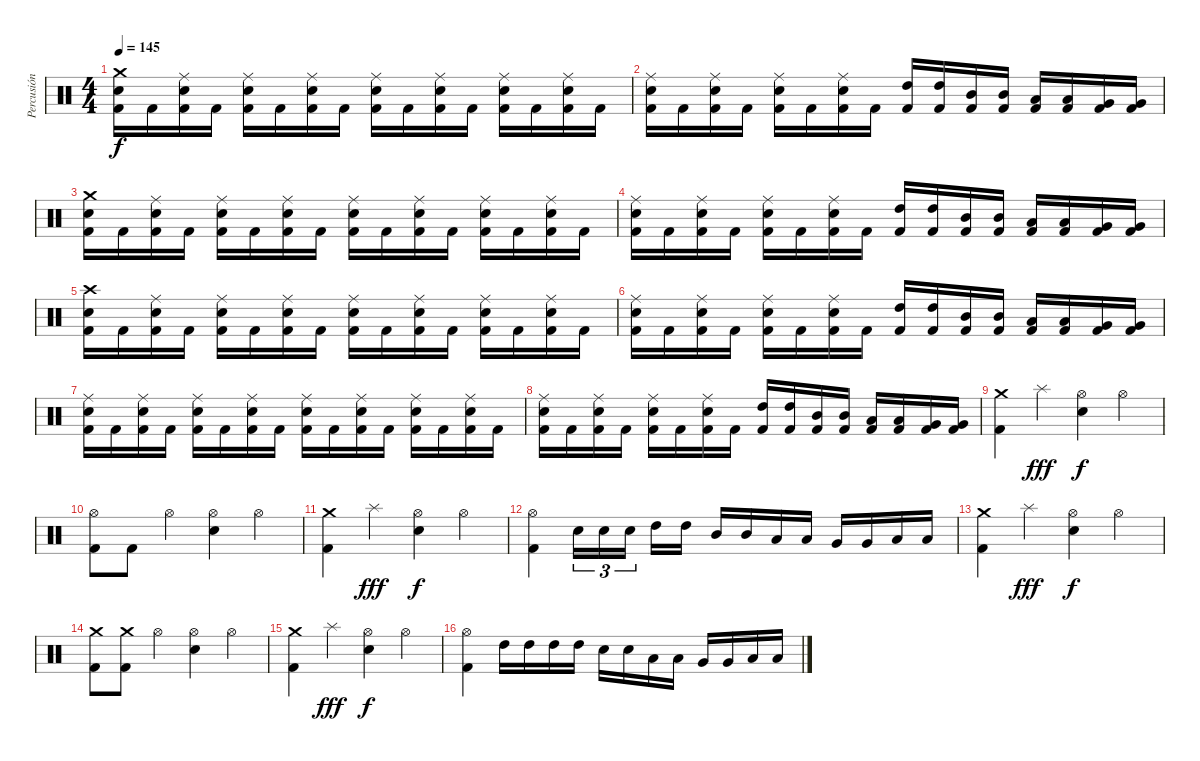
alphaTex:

\track ("Percusión" "Percusión") {instrument percussion}
\staff {score}
\articulation defaults
\ts (4 4)
\tempo 145
\clef neutral
\ks c
("Crash medium (hit)" "Electric Snare (hit)" "Kick (hit) 2").16{dy f} "Kick (hit) 2".16 ("Ride (middle)" "Electric Snare (hit)" "Kick (hit) 2").16 "Kick (hit) 2".16 ("Ride (middle)" "Electric Snare (hit)" "Kick (hit) 2").16 "Kick (hit) 2".16 ("Ride (middle)" "Electric Snare (hit)" "Kick (hit) 2").16 "Kick (hit) 2".16 ("Ride (middle)" "Electric Snare (hit)" "Kick (hit) 2").16 "Kick (hit) 2".16 ("Ride (middle)" "Electric Snare (hit)" "Kick (hit) 2").16 "Kick (hit) 2".16 ("Ride (middle)" "Electric Snare (hit)" "Kick (hit) 2").16 "Kick (hit) 2".16 ("Ride (middle)" "Electric Snare (hit)" "Kick (hit) 2").16 "Kick (hit) 2".16 |
("Ride (middle)" "Electric Snare (hit)" "Kick (hit) 2").16 "Kick (hit) 2".16 ("Ride (middle)" "Electric Snare (hit)" "Kick (hit) 2").16 "Kick (hit) 2".16 ("Ride (middle)" "Electric Snare (hit)" "Kick (hit) 2").16 "Kick (hit) 2".16 ("Ride (middle)" "Electric Snare (hit)" "Kick (hit) 2").16 "Kick (hit) 2".16 ("High Tom (hit)" "Kick (hit) 2").16 ("High Tom (hit)" "Kick (hit) 2").16 ("Mid Tom (hit)" "Kick (hit) 2").16 ("Mid Tom (hit)" "Kick (hit) 2").16 ("Low Tom (hit)" "Kick (hit) 2").16 ("Low Tom (hit)" "Kick (hit) 2").16 ("Very Low Tom (hit)" "Kick (hit) 2").16 ("Very Low Tom (hit)" "Kick (hit) 2").16 |
("Crash medium (hit)" "Electric Snare (hit)" "Kick (hit) 2").16 "Kick (hit) 2".16 ("Ride (middle)" "Electric Snare (hit)" "Kick (hit) 2").16 "Kick (hit) 2".16 ("Ride (middle)" "Electric Snare (hit)" "Kick (hit) 2").16 "Kick (hit) 2".16 ("Ride (middle)" "Electric Snare (hit)" "Kick (hit) 2").16 "Kick (hit) 2".16 ("Ride (middle)" "Electric Snare (hit)" "Kick (hit) 2").16 "Kick (hit) 2".16 ("Ride (middle)" "Electric Snare (hit)" "Kick (hit) 2").16 "Kick (hit) 2".16 ("Ride (middle)" "Electric Snare (hit)" "Kick (hit) 2").16 "Kick (hit) 2".16 ("Ride (middle)" "Electric Snare (hit)" "Kick (hit) 2").16 "Kick (hit) 2".16 |
("Ride (middle)" "Electric Snare (hit)" "Kick (hit) 2").16 "Kick (hit) 2".16 ("Ride (middle)" "Electric Snare (hit)" "Kick (hit) 2").16 "Kick (hit) 2".16 ("Ride (middle)" "Electric Snare (hit)" "Kick (hit) 2").16 "Kick (hit) 2".16 ("Ride (middle)" "Electric Snare (hit)" "Kick (hit) 2").16 "Kick (hit) 2".16 ("High Tom (hit)" "Kick (hit) 2").16 ("High Tom (hit)" "Kick (hit) 2").16 ("Mid Tom (hit)" "Kick (hit) 2").16 ("Mid Tom (hit)" "Kick (hit) 2").16 ("Low Tom (hit)" "Kick (hit) 2").16 ("Low Tom (hit)" "Kick (hit) 2").16 ("Very Low Tom (hit)" "Kick (hit) 2").16 ("Very Low Tom (hit)" "Kick (hit) 2").16 |
("Crash high (hit)" "Electric Snare (hit)" "Kick (hit) 2").16 "Kick (hit) 2".16 ("Ride (middle)" "Electric Snare (hit)" "Kick (hit) 2").16 "Kick (hit) 2".16 ("Ride (middle)" "Electric Snare (hit)" "Kick (hit) 2").16 "Kick (hit) 2".16 ("Ride (middle)" "Electric Snare (hit)" "Kick (hit) 2").16 "Kick (hit) 2".16 ("Ride (middle)" "Electric Snare (hit)" "Kick (hit) 2").16 "Kick (hit) 2".16 ("Ride (middle)" "Electric Snare (hit)" "Kick (hit) 2").16 "Kick (hit) 2".16 ("Ride (middle)" "Electric Snare (hit)" "Kick (hit) 2").16 "Kick (hit) 2".16 ("Ride (middle)" "Electric Snare (hit)" "Kick (hit) 2").16 "Kick (hit) 2".16 |
("Ride (middle)" "Electric Snare (hit)" "Kick (hit) 2").16 "Kick (hit) 2".16 ("Ride (middle)" "Electric Snare (hit)" "Kick (hit) 2").16 "Kick (hit) 2".16 ("Ride (middle)" "Electric Snare (hit)" "Kick (hit) 2").16 "Kick (hit) 2".16 ("Ride (middle)" "Electric Snare (hit)" "Kick (hit) 2").16 "Kick (hit) 2".16 ("High Tom (hit)" "Kick (hit) 2").16 ("High Tom (hit)" "Kick (hit) 2").16 ("Mid Tom (hit)" "Kick (hit) 2").16 ("Mid Tom (hit)" "Kick (hit) 2").16 ("Low Tom (hit)" "Kick (hit) 2").16 ("Low Tom (hit)" "Kick (hit) 2").16 ("Very Low Tom (hit)" "Kick (hit) 2").16 ("Very Low Tom (hit)" "Kick (hit) 2").16 |
("Ride (middle)" "Electric Snare (hit)" "Kick (hit) 2").16 "Kick (hit) 2".16 ("Ride (middle)" "Electric Snare (hit)" "Kick (hit) 2").16 "Kick (hit) 2".16 ("Ride (middle)" "Electric Snare (hit)" "Kick (hit) 2").16 "Kick (hit) 2".16 ("Ride (middle)" "Electric Snare (hit)" "Kick (hit) 2").16 "Kick (hit) 2".16 ("Ride (middle)" "Electric Snare (hit)" "Kick (hit) 2").16 "Kick (hit) 2".16 ("Ride (middle)" "Electric Snare (hit)" "Kick (hit) 2").16 "Kick (hit) 2".16 ("Ride (middle)" "Electric Snare (hit)" "Kick (hit) 2").16 "Kick (hit) 2".16 ("Ride (middle)" "Electric Snare (hit)" "Kick (hit) 2").16 "Kick (hit) 2".16 |
("Ride (middle)" "Electric Snare (hit)" "Kick (hit) 2").16 "Kick (hit) 2".16 ("Ride (middle)" "Electric Snare (hit)" "Kick (hit) 2").16 "Kick (hit) 2".16 ("Ride (middle)" "Electric Snare (hit)" "Kick (hit) 2").16 "Kick (hit) 2".16 ("Ride (middle)" "Electric Snare (hit)" "Kick (hit) 2").16 "Kick (hit) 2".16 ("High Tom (hit)" "Kick (hit) 2").16 ("High Tom (hit)" "Kick (hit) 2").16 ("Mid Tom (hit)" "Kick (hit) 2").16 ("Mid Tom (hit)" "Kick (hit) 2").16 ("Low Tom (hit)" "Kick (hit) 2").16 ("Low Tom (hit)" "Kick (hit) 2").16 ("Very Low Tom (hit)" "Kick (hit) 2").16 ("Very Low Tom (hit)" "Kick (hit) 2").16 |
("Crash medium (hit)" "Kick (hit) 2").4 "Splash (hit)".4{dy fff} ("Hi-Hat (open)" "Electric Snare (hit)").4{dy f} "Hi-Hat (open)".4 |
("Hi-Hat (open)" "Kick (hit) 2").8 "Kick (hit) 2".8 "Hi-Hat (open)".4 ("Hi-Hat (open)" "Electric Snare (hit)").4 "Hi-Hat (open)".4 |
("Crash medium (hit)" "Kick (hit) 2").4 "Splash (hit)".4{dy fff} ("Hi-Hat (open)" "Electric Snare (hit)").4{dy f} "Hi-Hat (open)".4 |
("Hi-Hat (open)" "Kick (hit) 2").4 "Electric Snare (hit)".16{tu (3 2)} "Electric Snare (hit)".16{tu (3 2)} "Electric Snare (hit)".16{tu (3 2)} "High Tom (hit)".16 "High Tom (hit)".16 "Mid Tom (hit)".16 "Mid Tom (hit)".16 "Low Tom (hit)".16 "Low Tom (hit)".16 "Very Low Tom (hit)".16 "Very Low Tom (hit)".16 "Low Floor Tom (hit)".16 "Low Floor Tom (hit)".16 |
("Crash medium (hit)" "Kick (hit) 2").4 "Splash (hit)".4{dy fff} ("Hi-Hat (open)" "Electric Snare (hit)").4{dy f} "Hi-Hat (open)".4 |
("Crash medium (hit)" "Kick (hit) 2").8 ("Crash medium (hit)" "Kick (hit) 2").8 "Hi-Hat (open)".4 ("Hi-Hat (open)" "Electric Snare (hit)").4 "Hi-Hat (open)".4 |
("Crash medium (hit)" "Kick (hit) 2").4 "Splash (hit)".4{dy fff} ("Hi-Hat (open)" "Electric Snare (hit)").4{dy f} "Hi-Hat (open)".4 |
("Hi-Hat (open)" "Kick (hit) 2").4 "High Tom (hit)".16 "High Tom (hit)".16 "High Tom (hit)".16 "High Tom (hit)".16 "Electric Snare (hit)".16 "Electric Snare (hit)".16 "Low Tom (hit)".16 "Low Tom (hit)".16 "Very Low Tom (hit)".16 "Very Low Tom (hit)".16 "Low Floor Tom (hit)".16 "Low Floor Tom (hit)".16
